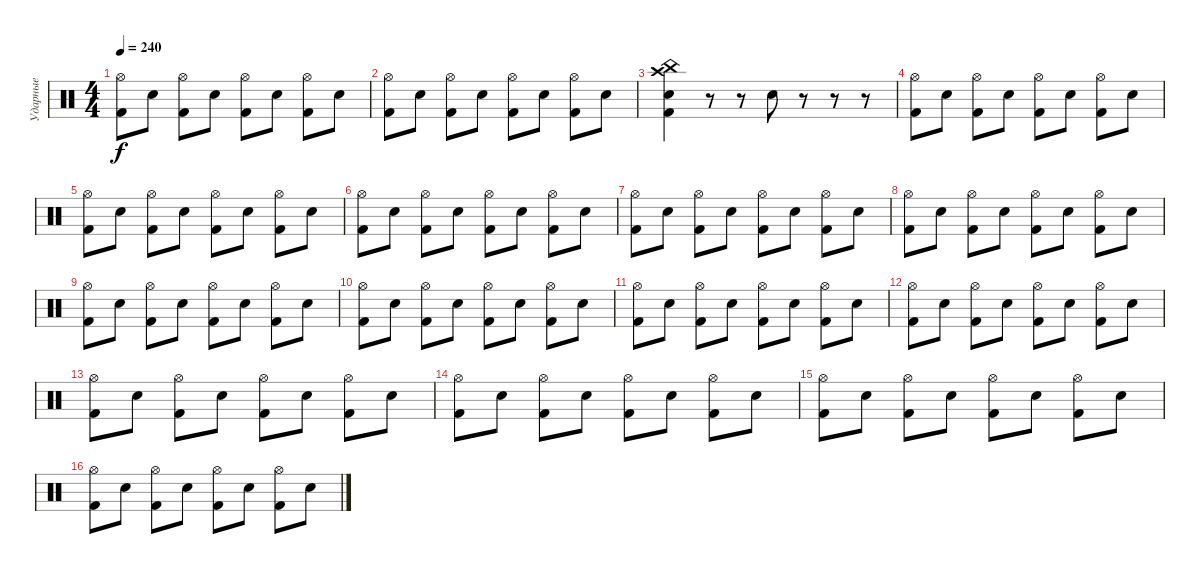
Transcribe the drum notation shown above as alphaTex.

\track ("Ударные" "Ударные") {instrument percussion}
\staff {score}
\articulation defaults
\ts (4 4)
\tempo 240
\clef neutral
\ks c
("Kick (hit) 2" "Hi-Hat (open)").8{dy f} "Electric Snare (hit)".8 ("Kick (hit) 2" "Hi-Hat (open)").8 "Electric Snare (hit)".8 ("Kick (hit) 2" "Hi-Hat (open)").8 "Electric Snare (hit)".8 ("Kick (hit) 2" "Hi-Hat (open)").8 "Electric Snare (hit)".8 |
("Kick (hit) 2" "Hi-Hat (open)").8 "Electric Snare (hit)".8 ("Kick (hit) 2" "Hi-Hat (open)").8 "Electric Snare (hit)".8 ("Kick (hit) 2" "Hi-Hat (open)").8 "Electric Snare (hit)".8 ("Kick (hit) 2" "Hi-Hat (open)").8 "Electric Snare (hit)".8 |
("Kick (hit) 2" "Electric Snare (hit)" "Crash high (hit)" "China (hit)").4 r.8 r.8 "Electric Snare (hit)".8 r.8 r.8 r.8 |
("Kick (hit) 2" "Hi-Hat (open)").8 "Electric Snare (hit)".8 ("Kick (hit) 2" "Hi-Hat (open)").8 "Electric Snare (hit)".8 ("Kick (hit) 2" "Hi-Hat (open)").8 "Electric Snare (hit)".8 ("Kick (hit) 2" "Hi-Hat (open)").8 "Electric Snare (hit)".8 |
("Kick (hit) 2" "Hi-Hat (open)").8 "Electric Snare (hit)".8 ("Kick (hit) 2" "Hi-Hat (open)").8 "Electric Snare (hit)".8 ("Kick (hit) 2" "Hi-Hat (open)").8 "Electric Snare (hit)".8 ("Kick (hit) 2" "Hi-Hat (open)").8 "Electric Snare (hit)".8 |
("Kick (hit) 2" "Hi-Hat (open)").8 "Electric Snare (hit)".8 ("Kick (hit) 2" "Hi-Hat (open)").8 "Electric Snare (hit)".8 ("Kick (hit) 2" "Hi-Hat (open)").8 "Electric Snare (hit)".8 ("Kick (hit) 2" "Hi-Hat (open)").8 "Electric Snare (hit)".8 |
("Kick (hit) 2" "Hi-Hat (open)").8 "Electric Snare (hit)".8 ("Kick (hit) 2" "Hi-Hat (open)").8 "Electric Snare (hit)".8 ("Kick (hit) 2" "Hi-Hat (open)").8 "Electric Snare (hit)".8 ("Kick (hit) 2" "Hi-Hat (open)").8 "Electric Snare (hit)".8 |
("Kick (hit) 2" "Hi-Hat (open)").8 "Electric Snare (hit)".8 ("Kick (hit) 2" "Hi-Hat (open)").8 "Electric Snare (hit)".8 ("Kick (hit) 2" "Hi-Hat (open)").8 "Electric Snare (hit)".8 ("Kick (hit) 2" "Hi-Hat (open)").8 "Electric Snare (hit)".8 |
("Kick (hit) 2" "Hi-Hat (open)").8 "Electric Snare (hit)".8 ("Kick (hit) 2" "Hi-Hat (open)").8 "Electric Snare (hit)".8 ("Kick (hit) 2" "Hi-Hat (open)").8 "Electric Snare (hit)".8 ("Kick (hit) 2" "Hi-Hat (open)").8 "Electric Snare (hit)".8 |
("Kick (hit) 2" "Hi-Hat (open)").8 "Electric Snare (hit)".8 ("Kick (hit) 2" "Hi-Hat (open)").8 "Electric Snare (hit)".8 ("Kick (hit) 2" "Hi-Hat (open)").8 "Electric Snare (hit)".8 ("Kick (hit) 2" "Hi-Hat (open)").8 "Electric Snare (hit)".8 |
("Kick (hit) 2" "Hi-Hat (open)").8 "Electric Snare (hit)".8 ("Kick (hit) 2" "Hi-Hat (open)").8 "Electric Snare (hit)".8 ("Kick (hit) 2" "Hi-Hat (open)").8 "Electric Snare (hit)".8 ("Kick (hit) 2" "Hi-Hat (open)").8 "Electric Snare (hit)".8 |
("Kick (hit) 2" "Hi-Hat (open)").8 "Electric Snare (hit)".8 ("Kick (hit) 2" "Hi-Hat (open)").8 "Electric Snare (hit)".8 ("Kick (hit) 2" "Hi-Hat (open)").8 "Electric Snare (hit)".8 ("Kick (hit) 2" "Hi-Hat (open)").8 "Electric Snare (hit)".8 |
("Kick (hit) 2" "Hi-Hat (open)").8 "Electric Snare (hit)".8 ("Kick (hit) 2" "Hi-Hat (open)").8 "Electric Snare (hit)".8 ("Kick (hit) 2" "Hi-Hat (open)").8 "Electric Snare (hit)".8 ("Kick (hit) 2" "Hi-Hat (open)").8 "Electric Snare (hit)".8 |
("Kick (hit) 2" "Hi-Hat (open)").8 "Electric Snare (hit)".8 ("Kick (hit) 2" "Hi-Hat (open)").8 "Electric Snare (hit)".8 ("Kick (hit) 2" "Hi-Hat (open)").8 "Electric Snare (hit)".8 ("Kick (hit) 2" "Hi-Hat (open)").8 "Electric Snare (hit)".8 |
("Kick (hit) 2" "Hi-Hat (open)").8 "Electric Snare (hit)".8 ("Kick (hit) 2" "Hi-Hat (open)").8 "Electric Snare (hit)".8 ("Kick (hit) 2" "Hi-Hat (open)").8 "Electric Snare (hit)".8 ("Kick (hit) 2" "Hi-Hat (open)").8 "Electric Snare (hit)".8 |
("Kick (hit) 2" "Hi-Hat (open)").8 "Electric Snare (hit)".8 ("Kick (hit) 2" "Hi-Hat (open)").8 "Electric Snare (hit)".8 ("Kick (hit) 2" "Hi-Hat (open)").8 "Electric Snare (hit)".8 ("Kick (hit) 2" "Hi-Hat (open)").8 "Electric Snare (hit)".8
